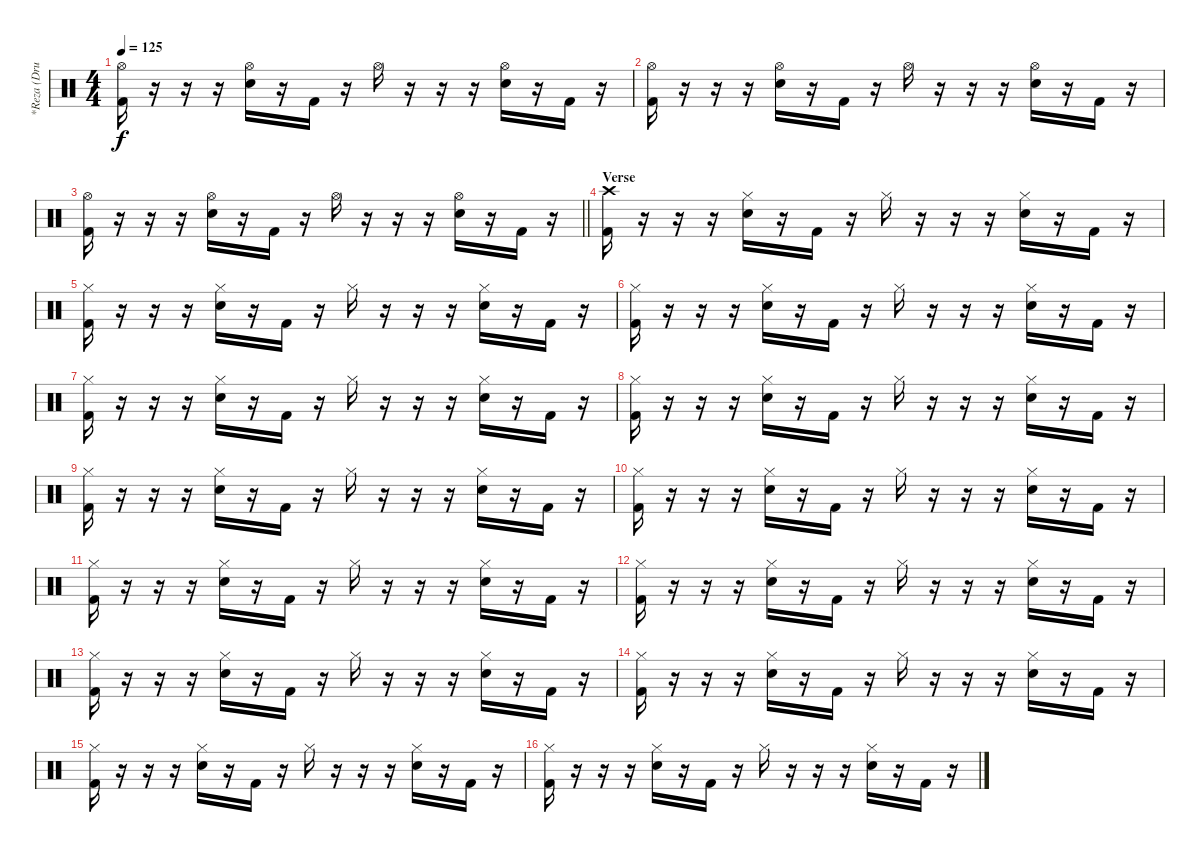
\track ("*Reza (Drum)" "*Reza (Dru") {instrument percussion}
\staff {score}
\articulation defaults
\ts (4 4)
\tempo 125
\clef neutral
\ks c
("Hi-Hat (open)" "Kick (hit) 2").16{dy f} r.16 r.16 r.16 ("Hi-Hat (open)" "Electric Snare (hit)").16 r.16 "Kick (hit) 2".16 r.16 "Hi-Hat (open)".16 r.16 r.16 r.16 ("Hi-Hat (open)" "Electric Snare (hit)").16 r.16 "Kick (hit) 2".16 r.16 |
("Hi-Hat (open)" "Kick (hit) 2").16 r.16 r.16 r.16 ("Hi-Hat (open)" "Electric Snare (hit)").16 r.16 "Kick (hit) 2".16 r.16 "Hi-Hat (open)".16 r.16 r.16 r.16 ("Hi-Hat (open)" "Electric Snare (hit)").16 r.16 "Kick (hit) 2".16 r.16 |
\barLineRight lightlight
("Hi-Hat (open)" "Kick (hit) 2").16 r.16 r.16 r.16 ("Hi-Hat (open)" "Electric Snare (hit)").16 r.16 "Kick (hit) 2".16 r.16 "Hi-Hat (open)".16 r.16 r.16 r.16 ("Hi-Hat (open)" "Electric Snare (hit)").16 r.16 "Kick (hit) 2".16 r.16 |
\section ("" "Verse")
("Crash high (hit)" "Kick (hit) 2").16 r.16 r.16 r.16 ("Hi-Hat (closed)" "Electric Snare (hit)").16 r.16 "Kick (hit) 2".16 r.16 "Hi-Hat (closed)".16 r.16 r.16 r.16 ("Hi-Hat (closed)" "Electric Snare (hit)").16 r.16 "Kick (hit) 2".16 r.16 |
("Hi-Hat (closed)" "Kick (hit) 2").16 r.16 r.16 r.16 ("Hi-Hat (closed)" "Electric Snare (hit)").16 r.16 "Kick (hit) 2".16 r.16 "Hi-Hat (closed)".16 r.16 r.16 r.16 ("Hi-Hat (closed)" "Electric Snare (hit)").16 r.16 "Kick (hit) 2".16 r.16 |
("Hi-Hat (closed)" "Kick (hit) 2").16 r.16 r.16 r.16 ("Hi-Hat (closed)" "Electric Snare (hit)").16 r.16 "Kick (hit) 2".16 r.16 "Hi-Hat (closed)".16 r.16 r.16 r.16 ("Hi-Hat (closed)" "Electric Snare (hit)").16 r.16 "Kick (hit) 2".16 r.16 |
("Hi-Hat (closed)" "Kick (hit) 2").16 r.16 r.16 r.16 ("Hi-Hat (closed)" "Electric Snare (hit)").16 r.16 "Kick (hit) 2".16 r.16 "Hi-Hat (closed)".16 r.16 r.16 r.16 ("Hi-Hat (closed)" "Electric Snare (hit)").16 r.16 "Kick (hit) 2".16 r.16 |
("Hi-Hat (closed)" "Kick (hit) 2").16 r.16 r.16 r.16 ("Hi-Hat (closed)" "Electric Snare (hit)").16 r.16 "Kick (hit) 2".16 r.16 "Hi-Hat (closed)".16 r.16 r.16 r.16 ("Hi-Hat (closed)" "Electric Snare (hit)").16 r.16 "Kick (hit) 2".16 r.16 |
("Hi-Hat (closed)" "Kick (hit) 2").16 r.16 r.16 r.16 ("Hi-Hat (closed)" "Electric Snare (hit)").16 r.16 "Kick (hit) 2".16 r.16 "Hi-Hat (closed)".16 r.16 r.16 r.16 ("Hi-Hat (closed)" "Electric Snare (hit)").16 r.16 "Kick (hit) 2".16 r.16 |
("Hi-Hat (closed)" "Kick (hit) 2").16 r.16 r.16 r.16 ("Hi-Hat (closed)" "Electric Snare (hit)").16 r.16 "Kick (hit) 2".16 r.16 "Hi-Hat (closed)".16 r.16 r.16 r.16 ("Hi-Hat (closed)" "Electric Snare (hit)").16 r.16 "Kick (hit) 2".16 r.16 |
("Hi-Hat (closed)" "Kick (hit) 2").16 r.16 r.16 r.16 ("Hi-Hat (closed)" "Electric Snare (hit)").16 r.16 "Kick (hit) 2".16 r.16 "Hi-Hat (closed)".16 r.16 r.16 r.16 ("Hi-Hat (closed)" "Electric Snare (hit)").16 r.16 "Kick (hit) 2".16 r.16 |
("Hi-Hat (closed)" "Kick (hit) 2").16 r.16 r.16 r.16 ("Hi-Hat (closed)" "Electric Snare (hit)").16 r.16 "Kick (hit) 2".16 r.16 "Hi-Hat (closed)".16 r.16 r.16 r.16 ("Hi-Hat (closed)" "Electric Snare (hit)").16 r.16 "Kick (hit) 2".16 r.16 |
("Hi-Hat (closed)" "Kick (hit) 2").16 r.16 r.16 r.16 ("Hi-Hat (closed)" "Electric Snare (hit)").16 r.16 "Kick (hit) 2".16 r.16 "Hi-Hat (closed)".16 r.16 r.16 r.16 ("Hi-Hat (closed)" "Electric Snare (hit)").16 r.16 "Kick (hit) 2".16 r.16 |
("Hi-Hat (closed)" "Kick (hit) 2").16 r.16 r.16 r.16 ("Hi-Hat (closed)" "Electric Snare (hit)").16 r.16 "Kick (hit) 2".16 r.16 "Hi-Hat (closed)".16 r.16 r.16 r.16 ("Hi-Hat (closed)" "Electric Snare (hit)").16 r.16 "Kick (hit) 2".16 r.16 |
("Hi-Hat (closed)" "Kick (hit) 2").16 r.16 r.16 r.16 ("Hi-Hat (closed)" "Electric Snare (hit)").16 r.16 "Kick (hit) 2".16 r.16 "Hi-Hat (closed)".16 r.16 r.16 r.16 ("Hi-Hat (closed)" "Electric Snare (hit)").16 r.16 "Kick (hit) 2".16 r.16 |
("Hi-Hat (closed)" "Kick (hit) 2").16 r.16 r.16 r.16 ("Hi-Hat (closed)" "Electric Snare (hit)").16 r.16 "Kick (hit) 2".16 r.16 "Hi-Hat (closed)".16 r.16 r.16 r.16 ("Hi-Hat (closed)" "Electric Snare (hit)").16 r.16 "Kick (hit) 2".16 r.16
